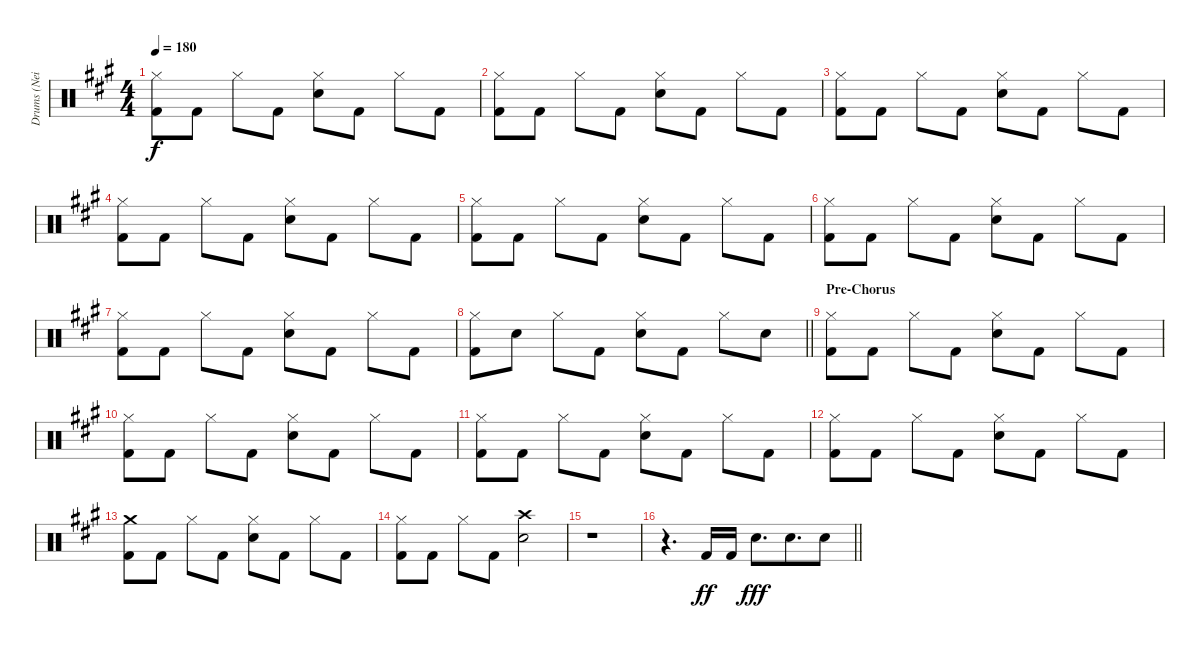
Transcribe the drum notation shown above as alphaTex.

\track ("Drums (Neil Sanderson)" "Drums (Nei") {instrument percussion}
\staff {score}
\articulation defaults
\ts (4 4)
\tempo 180
\clef neutral
\ks f#minor
("Hi-Hat (closed)" "Kick (hit) 2").8{dy f} "Kick (hit) 2".8 "Hi-Hat (closed)".8 "Kick (hit) 2".8 ("Hi-Hat (closed)" "Electric Snare (hit)").8 "Kick (hit) 2".8 "Hi-Hat (closed)".8 "Kick (hit) 2".8 |
("Hi-Hat (closed)" "Kick (hit) 2").8 "Kick (hit) 2".8 "Hi-Hat (closed)".8 "Kick (hit) 2".8 ("Hi-Hat (closed)" "Electric Snare (hit)").8 "Kick (hit) 2".8 "Hi-Hat (closed)".8 "Kick (hit) 2".8 |
("Hi-Hat (closed)" "Kick (hit) 2").8 "Kick (hit) 2".8 "Hi-Hat (closed)".8 "Kick (hit) 2".8 ("Hi-Hat (closed)" "Electric Snare (hit)").8 "Kick (hit) 2".8 "Hi-Hat (closed)".8 "Kick (hit) 2".8 |
("Hi-Hat (closed)" "Kick (hit) 2").8 "Kick (hit) 2".8 "Hi-Hat (closed)".8 "Kick (hit) 2".8 ("Hi-Hat (closed)" "Electric Snare (hit)").8 "Kick (hit) 2".8 "Hi-Hat (closed)".8 "Kick (hit) 2".8 |
("Hi-Hat (closed)" "Kick (hit) 2").8 "Kick (hit) 2".8 "Hi-Hat (closed)".8 "Kick (hit) 2".8 ("Hi-Hat (closed)" "Electric Snare (hit)").8 "Kick (hit) 2".8 "Hi-Hat (closed)".8 "Kick (hit) 2".8 |
("Hi-Hat (closed)" "Kick (hit) 2").8 "Kick (hit) 2".8 "Hi-Hat (closed)".8 "Kick (hit) 2".8 ("Hi-Hat (closed)" "Electric Snare (hit)").8 "Kick (hit) 2".8 "Hi-Hat (closed)".8 "Kick (hit) 2".8 |
("Hi-Hat (closed)" "Kick (hit) 2").8 "Kick (hit) 2".8 "Hi-Hat (closed)".8 "Kick (hit) 2".8 ("Hi-Hat (closed)" "Electric Snare (hit)").8 "Kick (hit) 2".8 "Hi-Hat (closed)".8 "Kick (hit) 2".8 |
\barLineRight lightlight
("Hi-Hat (closed)" "Kick (hit) 2").8 "Electric Snare (hit)".8 "Hi-Hat (closed)".8 "Kick (hit) 2".8 ("Hi-Hat (closed)" "Electric Snare (hit)").8 "Kick (hit) 2".8 "Hi-Hat (closed)".8 "Electric Snare (hit)".8 |
\section ("" "Pre-Chorus")
("Hi-Hat (closed)" "Kick (hit) 2").8 "Kick (hit) 2".8 "Hi-Hat (closed)".8 "Kick (hit) 2".8 ("Hi-Hat (closed)" "Electric Snare (hit)").8 "Kick (hit) 2".8 "Hi-Hat (closed)".8 "Kick (hit) 2".8 |
("Hi-Hat (closed)" "Kick (hit) 2").8 "Kick (hit) 2".8 "Hi-Hat (closed)".8 "Kick (hit) 2".8 ("Hi-Hat (closed)" "Electric Snare (hit)").8 "Kick (hit) 2".8 "Hi-Hat (closed)".8 "Kick (hit) 2".8 |
("Hi-Hat (closed)" "Kick (hit) 2").8 "Kick (hit) 2".8 "Hi-Hat (closed)".8 "Kick (hit) 2".8 ("Hi-Hat (closed)" "Electric Snare (hit)").8 "Kick (hit) 2".8 "Hi-Hat (closed)".8 "Kick (hit) 2".8 |
("Hi-Hat (closed)" "Kick (hit) 2").8 "Kick (hit) 2".8 "Hi-Hat (closed)".8 "Kick (hit) 2".8 ("Hi-Hat (closed)" "Electric Snare (hit)").8 "Kick (hit) 2".8 "Hi-Hat (closed)".8 "Kick (hit) 2".8 |
("Crash medium (hit)" "Kick (hit) 2").8 "Kick (hit) 2".8 "Hi-Hat (closed)".8 "Kick (hit) 2".8 ("Hi-Hat (closed)" "Electric Snare (hit)").8 "Kick (hit) 2".8 "Hi-Hat (closed)".8 "Kick (hit) 2".8 |
("Hi-Hat (closed)" "Kick (hit) 2").8 "Kick (hit) 2".8 "Hi-Hat (closed)".8 "Kick (hit) 2".8 ("Crash high (hit)" "Electric Snare (hit)").2 |
r.1 |
\barLineRight lightlight
r.4{d} "Kick (hit) 2".16{dy ff} "Kick (hit) 2".16 "Electric Snare (hit)".8{d dy fff} "Electric Snare (hit)".8{d beam merge} "Electric Snare (hit)".8
